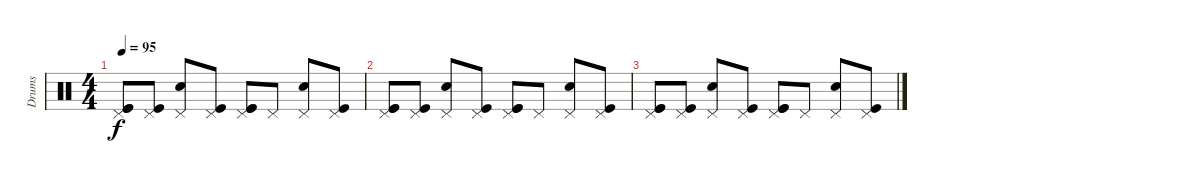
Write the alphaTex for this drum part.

\track ("Drums" "Drums") {instrument percussion}
\staff {score}
\articulation defaults
\ts (4 4)
\tempo 95
\clef neutral
\ks c
("Pedal Hi-Hat (hit)" "Kick (hit)" "Kick (hit)").8{dy f} ("Pedal Hi-Hat (hit)" "Kick (hit)").8 ("Pedal Hi-Hat (hit)" "Snare (hit) 2").8 ("Pedal Hi-Hat (hit)" "Kick (hit)").8 ("Pedal Hi-Hat (hit)" "Kick (hit)" "Kick (hit)").8 "Pedal Hi-Hat (hit)".8 ("Pedal Hi-Hat (hit)" "Snare (hit) 2").8 ("Pedal Hi-Hat (hit)" "Kick (hit)").8 |
("Pedal Hi-Hat (hit)" "Kick (hit)" "Kick (hit)").8 ("Pedal Hi-Hat (hit)" "Kick (hit)").8 ("Pedal Hi-Hat (hit)" "Snare (hit) 2").8 ("Pedal Hi-Hat (hit)" "Kick (hit)").8 ("Pedal Hi-Hat (hit)" "Kick (hit)" "Kick (hit)").8 "Pedal Hi-Hat (hit)".8 ("Pedal Hi-Hat (hit)" "Snare (hit) 2").8 ("Pedal Hi-Hat (hit)" "Kick (hit)").8 |
("Pedal Hi-Hat (hit)" "Kick (hit)" "Kick (hit)").8 ("Pedal Hi-Hat (hit)" "Kick (hit)").8 ("Pedal Hi-Hat (hit)" "Snare (hit) 2").8 ("Pedal Hi-Hat (hit)" "Kick (hit)").8 ("Pedal Hi-Hat (hit)" "Kick (hit)" "Kick (hit)").8 "Pedal Hi-Hat (hit)".8 ("Pedal Hi-Hat (hit)" "Snare (hit) 2").8 ("Pedal Hi-Hat (hit)" "Kick (hit)").8
